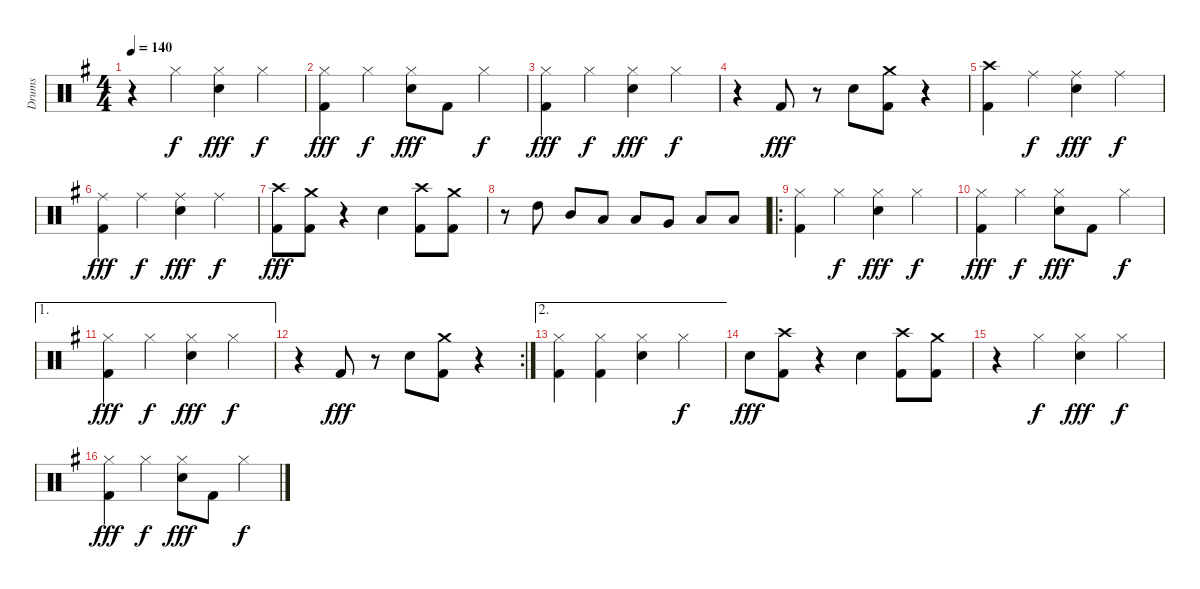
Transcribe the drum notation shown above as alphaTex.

\track ("Drums" "Drums") {instrument percussion}
\staff {score}
\articulation defaults
\ts (4 4)
\tempo 140
\clef neutral
\ks eminor
r.4{dy fff} "Hi-Hat (closed)".4{dy f} ("Electric Snare (hit)" "Hi-Hat (closed)").4{dy fff} "Hi-Hat (closed)".4{dy f} |
("Hi-Hat (closed)" "Kick (hit) 2").4{dy fff} "Hi-Hat (closed)".4{dy f} ("Electric Snare (hit)" "Hi-Hat (closed)").8{dy fff} "Kick (hit) 2".8 "Hi-Hat (closed)".4{dy f} |
("Hi-Hat (closed)" "Kick (hit) 2").4{dy fff} "Hi-Hat (closed)".4{dy f} ("Electric Snare (hit)" "Hi-Hat (closed)").4{dy fff} "Hi-Hat (closed)".4{dy f} |
r.4 "Kick (hit) 2".8{dy fff} r.8 "Electric Snare (hit)".8 ("Crash medium (hit)" "Kick (hit) 2").8 r.4 |
("Crash high (hit)" "Kick (hit) 2").4 "Ride (middle)".4{dy f} ("Electric Snare (hit)" "Ride (middle)").4{dy fff} "Ride (middle)".4{dy f} |
("Ride (middle)" "Kick (hit) 2").4{dy fff} "Ride (middle)".4{dy f} ("Electric Snare (hit)" "Ride (middle)").4{dy fff} "Ride (middle)".4{dy f} |
("Crash high (hit)" "Kick (hit) 2").8{dy fff} ("Crash medium (hit)" "Kick (hit) 2").8 r.4 "Electric Snare (hit)".4 ("Crash high (hit)" "Kick (hit) 2").8 ("Crash medium (hit)" "Kick (hit) 2").8 |
r.8 "High Tom (hit)".8 "Mid Tom (hit)".8 "Low Tom (hit)".8 "Low Tom (hit)".8 "Very Low Tom (hit)".8 "Low Floor Tom (hit)".8 "Low Floor Tom (hit)".8 |
\ro
("Hi-Hat (closed)" "Kick (hit) 2").4 "Hi-Hat (closed)".4{dy f} ("Electric Snare (hit)" "Hi-Hat (closed)").4{dy fff} "Hi-Hat (closed)".4{dy f} |
("Hi-Hat (closed)" "Kick (hit) 2").4{dy fff} "Hi-Hat (closed)".4{dy f} ("Electric Snare (hit)" "Hi-Hat (closed)").8{dy fff} "Kick (hit) 2".8 "Hi-Hat (closed)".4{dy f} |
\ae 1
("Hi-Hat (closed)" "Kick (hit) 2").4{dy fff} "Hi-Hat (closed)".4{dy f} ("Electric Snare (hit)" "Hi-Hat (closed)").4{dy fff} "Hi-Hat (closed)".4{dy f} |
\rc 2
r.4 "Kick (hit) 2".8{dy fff} r.8 "Electric Snare (hit)".8 ("Crash medium (hit)" "Kick (hit) 2").8 r.4 |
\ae 2
("Hi-Hat (closed)" "Kick (hit) 2").4 ("Hi-Hat (closed)" "Kick (hit) 2").4 ("Electric Snare (hit)" "Hi-Hat (closed)").4 "Hi-Hat (closed)".4{dy f} |
"Electric Snare (hit)".8{dy fff} ("Crash high (hit)" "Kick (hit) 2").8 r.4 "Electric Snare (hit)".4 ("Crash high (hit)" "Kick (hit) 2").8 ("Crash medium (hit)" "Kick (hit) 2").8 |
r.4 "Hi-Hat (closed)".4{dy f} ("Electric Snare (hit)" "Hi-Hat (closed)").4{dy fff} "Hi-Hat (closed)".4{dy f} |
("Hi-Hat (closed)" "Kick (hit) 2").4{dy fff} "Hi-Hat (closed)".4{dy f} ("Electric Snare (hit)" "Hi-Hat (closed)").8{dy fff} "Kick (hit) 2".8 "Hi-Hat (closed)".4{dy f}
